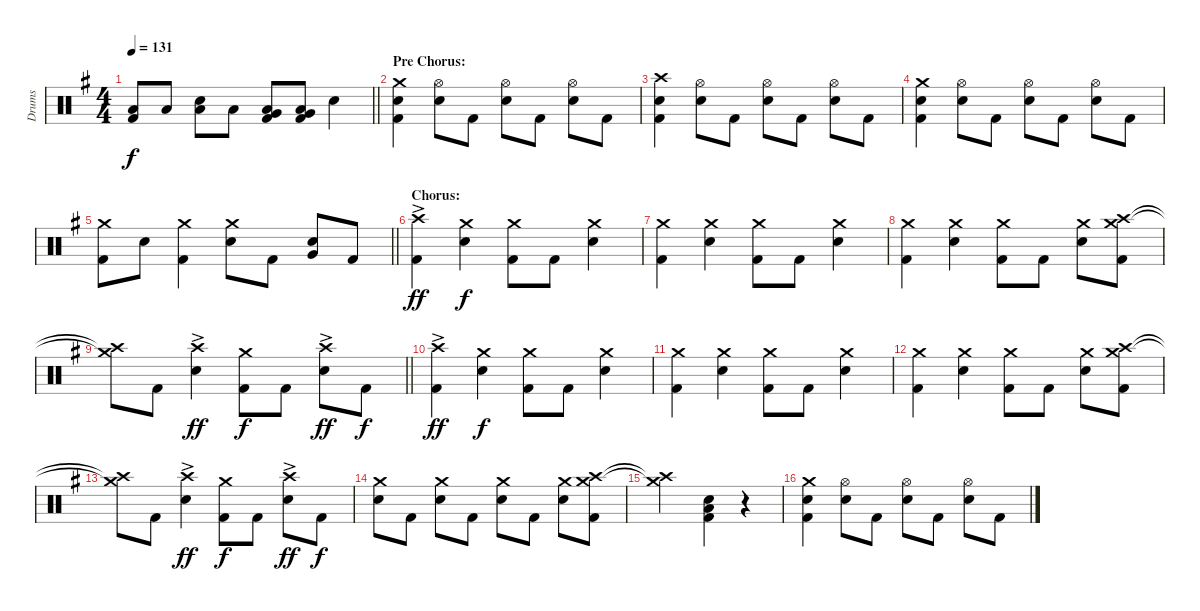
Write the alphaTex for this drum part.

\track ("Drums" "Drums") {instrument percussion}
\staff {score}
\articulation defaults
\ts (4 4)
\tempo 131
\clef neutral
\barLineRight lightlight
\ks g
("Low Floor Tom (hit)" "Kick (hit) 2").8{dy f} "Low Floor Tom (hit)".8 ("Low Floor Tom (hit)" "Electric Snare (hit)").8 "Low Floor Tom (hit)".8 ("Low Tom (hit)" "Very Low Tom (hit)" "Kick (hit) 2").8 ("Low Tom (hit)" "Very Low Tom (hit)" "Kick (hit) 2").8 "Electric Snare (hit)".4 |
\section ("" "Pre Chorus:")
("Crash medium (hit)" "Electric Snare (hit)" "Kick (hit) 2").4 ("Hi-Hat (open)" "Electric Snare (hit)").8 "Kick (hit) 2".8 ("Hi-Hat (open)" "Electric Snare (hit)").8 "Kick (hit) 2".8 ("Hi-Hat (open)" "Electric Snare (hit)").8 "Kick (hit) 2".8 |
("Crash high (hit)" "Electric Snare (hit)" "Kick (hit) 2").4 ("Hi-Hat (open)" "Electric Snare (hit)").8 "Kick (hit) 2".8 ("Hi-Hat (open)" "Electric Snare (hit)").8 "Kick (hit) 2".8 ("Hi-Hat (open)" "Electric Snare (hit)").8 "Kick (hit) 2".8 |
("Crash medium (hit)" "Electric Snare (hit)" "Kick (hit) 2").4 ("Hi-Hat (open)" "Electric Snare (hit)").8 "Kick (hit) 2".8 ("Hi-Hat (open)" "Electric Snare (hit)").8 "Kick (hit) 2".8 ("Hi-Hat (open)" "Electric Snare (hit)").8 "Kick (hit) 2".8 |
\barLineRight lightlight
("Crash medium (hit)" "Kick (hit) 2").8 "Electric Snare (hit)".8 ("Crash medium (hit)" "Kick (hit) 2").4 ("Crash medium (hit)" "Electric Snare (hit)").8 "Kick (hit) 2".8 ("Very Low Tom (hit)" "Electric Snare (hit)").8 "Kick (hit) 2".8 |
\section ("" "Chorus:")
("Crash high (hit)"{ac} "Kick (hit) 2").4{dy ff} ("Crash medium (hit)" "Electric Snare (hit)").4{dy f} ("Crash medium (hit)" "Kick (hit) 2").8 "Kick (hit) 2".8 ("Crash medium (hit)" "Electric Snare (hit)").4 |
("Crash medium (hit)" "Kick (hit) 2").4 ("Crash medium (hit)" "Electric Snare (hit)").4 ("Crash medium (hit)" "Kick (hit) 2").8 "Kick (hit) 2".8 ("Crash medium (hit)" "Electric Snare (hit)").4 |
("Crash medium (hit)" "Kick (hit) 2").4 ("Crash medium (hit)" "Electric Snare (hit)").4 ("Crash medium (hit)" "Kick (hit) 2").8 "Kick (hit) 2".8 ("Crash medium (hit)" "Electric Snare (hit)").8 ("Crash high (hit)" "Crash medium (hit)" "Kick (hit) 2").8 |
\barLineRight lightlight
("Crash high (hit)"{t} "Crash medium (hit)"{t}).8 "Kick (hit) 2".8 ("Crash high (hit)"{ac} "Electric Snare (hit)").4{dy ff} ("Crash medium (hit)" "Kick (hit) 2").8{dy f} "Kick (hit) 2".8 ("Crash high (hit)"{ac} "Electric Snare (hit)").8{dy ff} "Kick (hit) 2".8{dy f} |
("Crash high (hit)"{ac} "Kick (hit) 2").4{dy ff} ("Crash medium (hit)" "Electric Snare (hit)").4{dy f} ("Crash medium (hit)" "Kick (hit) 2").8 "Kick (hit) 2".8 ("Crash medium (hit)" "Electric Snare (hit)").4 |
("Crash medium (hit)" "Kick (hit) 2").4 ("Crash medium (hit)" "Electric Snare (hit)").4 ("Crash medium (hit)" "Kick (hit) 2").8 "Kick (hit) 2".8 ("Crash medium (hit)" "Electric Snare (hit)").4 |
("Crash medium (hit)" "Kick (hit) 2").4 ("Crash medium (hit)" "Electric Snare (hit)").4 ("Crash medium (hit)" "Kick (hit) 2").8 "Kick (hit) 2".8 ("Crash medium (hit)" "Electric Snare (hit)").8 ("Crash high (hit)" "Crash medium (hit)" "Kick (hit) 2").8 |
("Crash high (hit)"{t} "Crash medium (hit)"{t}).8 "Kick (hit) 2".8 ("Crash high (hit)"{ac} "Electric Snare (hit)").4{dy ff} ("Crash medium (hit)" "Kick (hit) 2").8{dy f} "Kick (hit) 2".8 ("Crash high (hit)"{ac} "Electric Snare (hit)").8{dy ff} "Kick (hit) 2".8{dy f} |
("Crash medium (hit)" "Electric Snare (hit)").8 "Kick (hit) 2".8 ("Crash medium (hit)" "Electric Snare (hit)").8 "Kick (hit) 2".8 ("Crash medium (hit)" "Electric Snare (hit)").8 "Kick (hit) 2".8 ("Crash medium (hit)" "Electric Snare (hit)").8 ("Crash high (hit)" "Crash medium (hit)" "Kick (hit) 2").8 |
("Crash high (hit)"{t} "Crash medium (hit)"{t}).2 ("Electric Snare (hit)" "Low Floor Tom (hit)" "Kick (hit) 2").4 r.4 |
("Crash medium (hit)" "Electric Snare (hit)" "Kick (hit) 2").4 ("Hi-Hat (open)" "Electric Snare (hit)").8 "Kick (hit) 2".8 ("Hi-Hat (open)" "Electric Snare (hit)").8 "Kick (hit) 2".8 ("Hi-Hat (open)" "Electric Snare (hit)").8 "Kick (hit) 2".8
